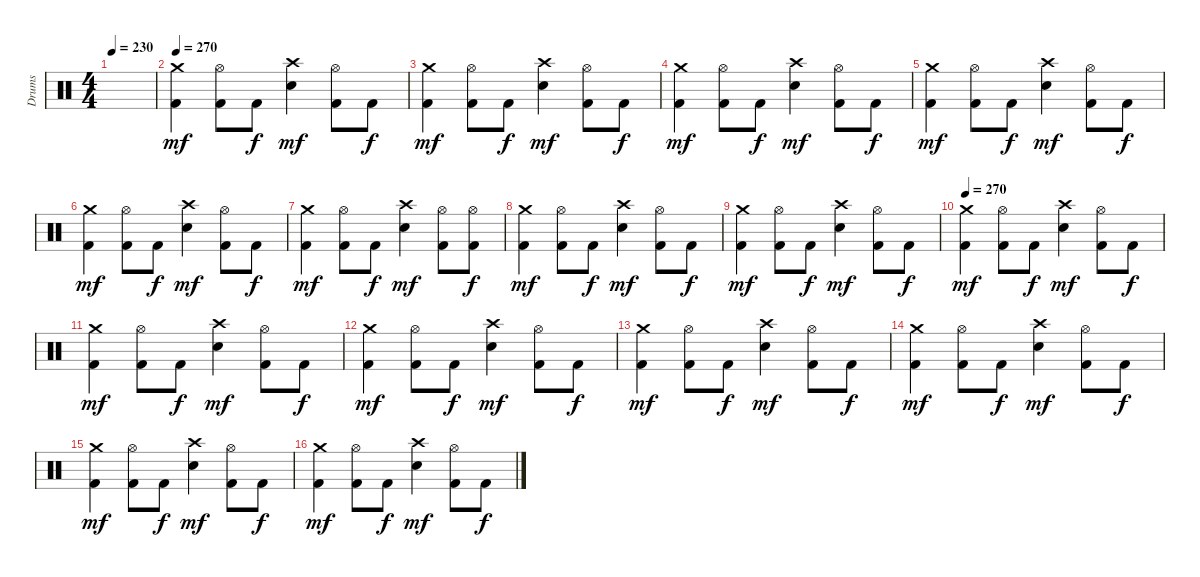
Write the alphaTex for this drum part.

\track ("Drums" "Drums") {instrument percussion}
\staff {score}
\articulation defaults
\ts (4 4)
\tempo 230
\clef neutral
\ks c
|
\tempo 270
("Crash medium (hit)" "Kick (hit) 2").4{dy mf} ("Hi-Hat (open)" "Kick (hit) 2").8 "Kick (hit) 2".8{dy f} ("Crash high (hit)" "Snare (hit) 2").4{dy mf} ("Hi-Hat (open)" "Kick (hit) 2").8 "Kick (hit) 2".8{dy f} |
("Crash medium (hit)" "Kick (hit) 2").4{dy mf} ("Hi-Hat (open)" "Kick (hit) 2").8 "Kick (hit) 2".8{dy f} ("Crash high (hit)" "Snare (hit) 2").4{dy mf} ("Hi-Hat (open)" "Kick (hit) 2").8 "Kick (hit) 2".8{dy f} |
("Crash medium (hit)" "Kick (hit) 2").4{dy mf} ("Hi-Hat (open)" "Kick (hit) 2").8 "Kick (hit) 2".8{dy f} ("Crash high (hit)" "Snare (hit) 2").4{dy mf} ("Hi-Hat (open)" "Kick (hit) 2").8 "Kick (hit) 2".8{dy f} |
("Crash medium (hit)" "Kick (hit) 2").4{dy mf} ("Hi-Hat (open)" "Kick (hit) 2").8 "Kick (hit) 2".8{dy f} ("Crash high (hit)" "Snare (hit) 2").4{dy mf} ("Hi-Hat (open)" "Kick (hit) 2").8 "Kick (hit) 2".8{dy f} |
("Crash medium (hit)" "Kick (hit) 2").4{dy mf} ("Hi-Hat (open)" "Kick (hit) 2").8 "Kick (hit) 2".8{dy f} ("Crash high (hit)" "Snare (hit) 2").4{dy mf} ("Hi-Hat (open)" "Kick (hit) 2").8 "Kick (hit) 2".8{dy f} |
("Crash medium (hit)" "Kick (hit) 2").4{dy mf} ("Hi-Hat (open)" "Kick (hit) 2").8 "Kick (hit) 2".8{dy f} ("Crash high (hit)" "Snare (hit) 2").4{dy mf} ("Hi-Hat (open)" "Kick (hit) 2").8 ("Hi-Hat (open)" "Kick (hit) 2").8{dy f} |
("Crash medium (hit)" "Kick (hit) 2").4{dy mf} ("Hi-Hat (open)" "Kick (hit) 2").8 "Kick (hit) 2".8{dy f} ("Crash high (hit)" "Snare (hit) 2").4{dy mf} ("Hi-Hat (open)" "Kick (hit) 2").8 "Kick (hit) 2".8{dy f} |
("Crash medium (hit)" "Kick (hit) 2").4{dy mf} ("Hi-Hat (open)" "Kick (hit) 2").8 "Kick (hit) 2".8{dy f} ("Crash high (hit)" "Snare (hit) 2").4{dy mf} ("Hi-Hat (open)" "Kick (hit) 2").8 "Kick (hit) 2".8{dy f} |
\tempo 270
("Crash medium (hit)" "Kick (hit) 2").4{dy mf} ("Hi-Hat (open)" "Kick (hit) 2").8 "Kick (hit) 2".8{dy f} ("Crash high (hit)" "Snare (hit) 2").4{dy mf} ("Hi-Hat (open)" "Kick (hit) 2").8 "Kick (hit) 2".8{dy f} |
("Crash medium (hit)" "Kick (hit) 2").4{dy mf} ("Hi-Hat (open)" "Kick (hit) 2").8 "Kick (hit) 2".8{dy f} ("Crash high (hit)" "Snare (hit) 2").4{dy mf} ("Hi-Hat (open)" "Kick (hit) 2").8 "Kick (hit) 2".8{dy f} |
("Crash medium (hit)" "Kick (hit) 2").4{dy mf} ("Hi-Hat (open)" "Kick (hit) 2").8 "Kick (hit) 2".8{dy f} ("Crash high (hit)" "Snare (hit) 2").4{dy mf} ("Hi-Hat (open)" "Kick (hit) 2").8 "Kick (hit) 2".8{dy f} |
("Crash medium (hit)" "Kick (hit) 2").4{dy mf} ("Hi-Hat (open)" "Kick (hit) 2").8 "Kick (hit) 2".8{dy f} ("Crash high (hit)" "Snare (hit) 2").4{dy mf} ("Hi-Hat (open)" "Kick (hit) 2").8 "Kick (hit) 2".8{dy f} |
("Crash medium (hit)" "Kick (hit) 2").4{dy mf} ("Hi-Hat (open)" "Kick (hit) 2").8 "Kick (hit) 2".8{dy f} ("Crash high (hit)" "Snare (hit) 2").4{dy mf} ("Hi-Hat (open)" "Kick (hit) 2").8 "Kick (hit) 2".8{dy f} |
("Crash medium (hit)" "Kick (hit) 2").4{dy mf} ("Hi-Hat (open)" "Kick (hit) 2").8 "Kick (hit) 2".8{dy f} ("Crash high (hit)" "Snare (hit) 2").4{dy mf} ("Hi-Hat (open)" "Kick (hit) 2").8 "Kick (hit) 2".8{dy f} |
("Crash medium (hit)" "Kick (hit) 2").4{dy mf} ("Hi-Hat (open)" "Kick (hit) 2").8 "Kick (hit) 2".8{dy f} ("Crash high (hit)" "Snare (hit) 2").4{dy mf} ("Hi-Hat (open)" "Kick (hit) 2").8 "Kick (hit) 2".8{dy f}
